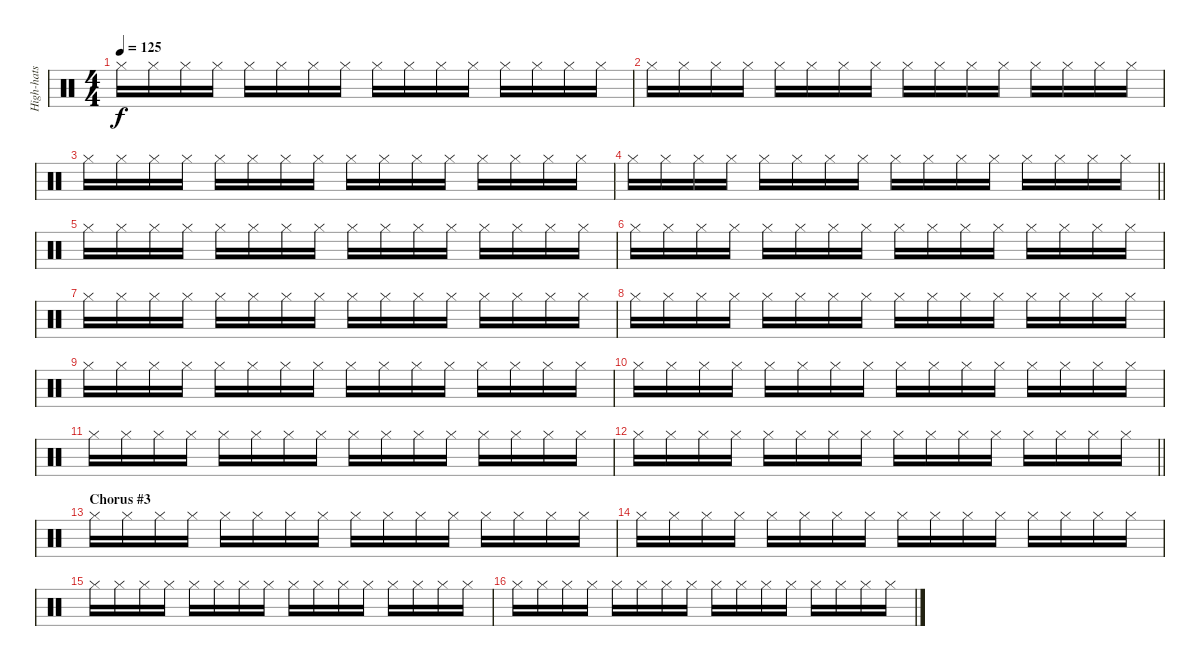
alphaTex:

\track ("High-hats" "High-hats") {instrument percussion}
\staff {score}
\articulation defaults
\ts (4 4)
\tempo 125
\clef neutral
\ks c "Hi-Hat (closed)".16{dy f} "Hi-Hat (closed)".16 "Hi-Hat (closed)".16 "Hi-Hat (closed)".16 "Hi-Hat (closed)".16 "Hi-Hat (closed)".16 "Hi-Hat (closed)".16 "Hi-Hat (closed)".16 "Hi-Hat (closed)".16 "Hi-Hat (closed)".16 "Hi-Hat (closed)".16 "Hi-Hat (closed)".16 "Hi-Hat (closed)".16 "Hi-Hat (closed)".16 "Hi-Hat (closed)".16 "Hi-Hat (closed)".16
|
"Hi-Hat (closed)".16 "Hi-Hat (closed)".16 "Hi-Hat (closed)".16 "Hi-Hat (closed)".16 "Hi-Hat (closed)".16 "Hi-Hat (closed)".16 "Hi-Hat (closed)".16 "Hi-Hat (closed)".16 "Hi-Hat (closed)".16 "Hi-Hat (closed)".16 "Hi-Hat (closed)".16 "Hi-Hat (closed)".16 "Hi-Hat (closed)".16 "Hi-Hat (closed)".16 "Hi-Hat (closed)".16 "Hi-Hat (closed)".16 |
"Hi-Hat (closed)".16 "Hi-Hat (closed)".16 "Hi-Hat (closed)".16 "Hi-Hat (closed)".16 "Hi-Hat (closed)".16 "Hi-Hat (closed)".16 "Hi-Hat (closed)".16 "Hi-Hat (closed)".16 "Hi-Hat (closed)".16 "Hi-Hat (closed)".16 "Hi-Hat (closed)".16 "Hi-Hat (closed)".16 "Hi-Hat (closed)".16 "Hi-Hat (closed)".16 "Hi-Hat (closed)".16 "Hi-Hat (closed)".16 |
\barLineRight lightlight "Hi-Hat (closed)".16 "Hi-Hat (closed)".16 "Hi-Hat (closed)".16 "Hi-Hat (closed)".16 "Hi-Hat (closed)".16 "Hi-Hat (closed)".16 "Hi-Hat (closed)".16 "Hi-Hat (closed)".16 "Hi-Hat (closed)".16 "Hi-Hat (closed)".16 "Hi-Hat (closed)".16 "Hi-Hat (closed)".16 "Hi-Hat (closed)".16 "Hi-Hat (closed)".16 "Hi-Hat (closed)".16 "Hi-Hat (closed)".16
|
"Hi-Hat (closed)".16 "Hi-Hat (closed)".16 "Hi-Hat (closed)".16 "Hi-Hat (closed)".16 "Hi-Hat (closed)".16 "Hi-Hat (closed)".16 "Hi-Hat (closed)".16 "Hi-Hat (closed)".16 "Hi-Hat (closed)".16 "Hi-Hat (closed)".16 "Hi-Hat (closed)".16 "Hi-Hat (closed)".16 "Hi-Hat (closed)".16 "Hi-Hat (closed)".16 "Hi-Hat (closed)".16 "Hi-Hat (closed)".16 |
"Hi-Hat (closed)".16 "Hi-Hat (closed)".16 "Hi-Hat (closed)".16 "Hi-Hat (closed)".16 "Hi-Hat (closed)".16 "Hi-Hat (closed)".16 "Hi-Hat (closed)".16 "Hi-Hat (closed)".16 "Hi-Hat (closed)".16 "Hi-Hat (closed)".16 "Hi-Hat (closed)".16 "Hi-Hat (closed)".16 "Hi-Hat (closed)".16 "Hi-Hat (closed)".16 "Hi-Hat (closed)".16 "Hi-Hat (closed)".16 |
"Hi-Hat (closed)".16 "Hi-Hat (closed)".16 "Hi-Hat (closed)".16 "Hi-Hat (closed)".16 "Hi-Hat (closed)".16 "Hi-Hat (closed)".16 "Hi-Hat (closed)".16 "Hi-Hat (closed)".16 "Hi-Hat (closed)".16 "Hi-Hat (closed)".16 "Hi-Hat (closed)".16 "Hi-Hat (closed)".16 "Hi-Hat (closed)".16 "Hi-Hat (closed)".16 "Hi-Hat (closed)".16 "Hi-Hat (closed)".16 |
"Hi-Hat (closed)".16 "Hi-Hat (closed)".16 "Hi-Hat (closed)".16 "Hi-Hat (closed)".16 "Hi-Hat (closed)".16 "Hi-Hat (closed)".16 "Hi-Hat (closed)".16 "Hi-Hat (closed)".16 "Hi-Hat (closed)".16 "Hi-Hat (closed)".16 "Hi-Hat (closed)".16 "Hi-Hat (closed)".16 "Hi-Hat (closed)".16 "Hi-Hat (closed)".16 "Hi-Hat (closed)".16 "Hi-Hat (closed)".16 |
"Hi-Hat (closed)".16 "Hi-Hat (closed)".16 "Hi-Hat (closed)".16 "Hi-Hat (closed)".16 "Hi-Hat (closed)".16 "Hi-Hat (closed)".16 "Hi-Hat (closed)".16 "Hi-Hat (closed)".16 "Hi-Hat (closed)".16 "Hi-Hat (closed)".16 "Hi-Hat (closed)".16 "Hi-Hat (closed)".16 "Hi-Hat (closed)".16 "Hi-Hat (closed)".16 "Hi-Hat (closed)".16 "Hi-Hat (closed)".16 |
"Hi-Hat (closed)".16 "Hi-Hat (closed)".16 "Hi-Hat (closed)".16 "Hi-Hat (closed)".16 "Hi-Hat (closed)".16 "Hi-Hat (closed)".16 "Hi-Hat (closed)".16 "Hi-Hat (closed)".16 "Hi-Hat (closed)".16 "Hi-Hat (closed)".16 "Hi-Hat (closed)".16 "Hi-Hat (closed)".16 "Hi-Hat (closed)".16 "Hi-Hat (closed)".16 "Hi-Hat (closed)".16 "Hi-Hat (closed)".16 |
"Hi-Hat (closed)".16 "Hi-Hat (closed)".16 "Hi-Hat (closed)".16 "Hi-Hat (closed)".16 "Hi-Hat (closed)".16 "Hi-Hat (closed)".16 "Hi-Hat (closed)".16 "Hi-Hat (closed)".16 "Hi-Hat (closed)".16 "Hi-Hat (closed)".16 "Hi-Hat (closed)".16 "Hi-Hat (closed)".16 "Hi-Hat (closed)".16 "Hi-Hat (closed)".16 "Hi-Hat (closed)".16 "Hi-Hat (closed)".16 |
\barLineRight lightlight "Hi-Hat (closed)".16 "Hi-Hat (closed)".16 "Hi-Hat (closed)".16 "Hi-Hat (closed)".16 "Hi-Hat (closed)".16 "Hi-Hat (closed)".16 "Hi-Hat (closed)".16 "Hi-Hat (closed)".16 "Hi-Hat (closed)".16 "Hi-Hat (closed)".16 "Hi-Hat (closed)".16 "Hi-Hat (closed)".16 "Hi-Hat (closed)".16 "Hi-Hat (closed)".16 "Hi-Hat (closed)".16 "Hi-Hat (closed)".16
|
\section ("" "Chorus #3")
"Hi-Hat (closed)".16 "Hi-Hat (closed)".16 "Hi-Hat (closed)".16 "Hi-Hat (closed)".16 "Hi-Hat (closed)".16 "Hi-Hat (closed)".16 "Hi-Hat (closed)".16 "Hi-Hat (closed)".16 "Hi-Hat (closed)".16 "Hi-Hat (closed)".16 "Hi-Hat (closed)".16 "Hi-Hat (closed)".16 "Hi-Hat (closed)".16 "Hi-Hat (closed)".16 "Hi-Hat (closed)".16 "Hi-Hat (closed)".16 |
"Hi-Hat (closed)".16 "Hi-Hat (closed)".16 "Hi-Hat (closed)".16 "Hi-Hat (closed)".16 "Hi-Hat (closed)".16 "Hi-Hat (closed)".16 "Hi-Hat (closed)".16 "Hi-Hat (closed)".16 "Hi-Hat (closed)".16 "Hi-Hat (closed)".16 "Hi-Hat (closed)".16 "Hi-Hat (closed)".16 "Hi-Hat (closed)".16 "Hi-Hat (closed)".16 "Hi-Hat (closed)".16 "Hi-Hat (closed)".16 |
"Hi-Hat (closed)".16 "Hi-Hat (closed)".16 "Hi-Hat (closed)".16 "Hi-Hat (closed)".16 "Hi-Hat (closed)".16 "Hi-Hat (closed)".16 "Hi-Hat (closed)".16 "Hi-Hat (closed)".16 "Hi-Hat (closed)".16 "Hi-Hat (closed)".16 "Hi-Hat (closed)".16 "Hi-Hat (closed)".16 "Hi-Hat (closed)".16 "Hi-Hat (closed)".16 "Hi-Hat (closed)".16 "Hi-Hat (closed)".16 |
"Hi-Hat (closed)".16 "Hi-Hat (closed)".16 "Hi-Hat (closed)".16 "Hi-Hat (closed)".16 "Hi-Hat (closed)".16 "Hi-Hat (closed)".16 "Hi-Hat (closed)".16 "Hi-Hat (closed)".16 "Hi-Hat (closed)".16 "Hi-Hat (closed)".16 "Hi-Hat (closed)".16 "Hi-Hat (closed)".16 "Hi-Hat (closed)".16 "Hi-Hat (closed)".16 "Hi-Hat (closed)".16 "Hi-Hat (closed)".16
